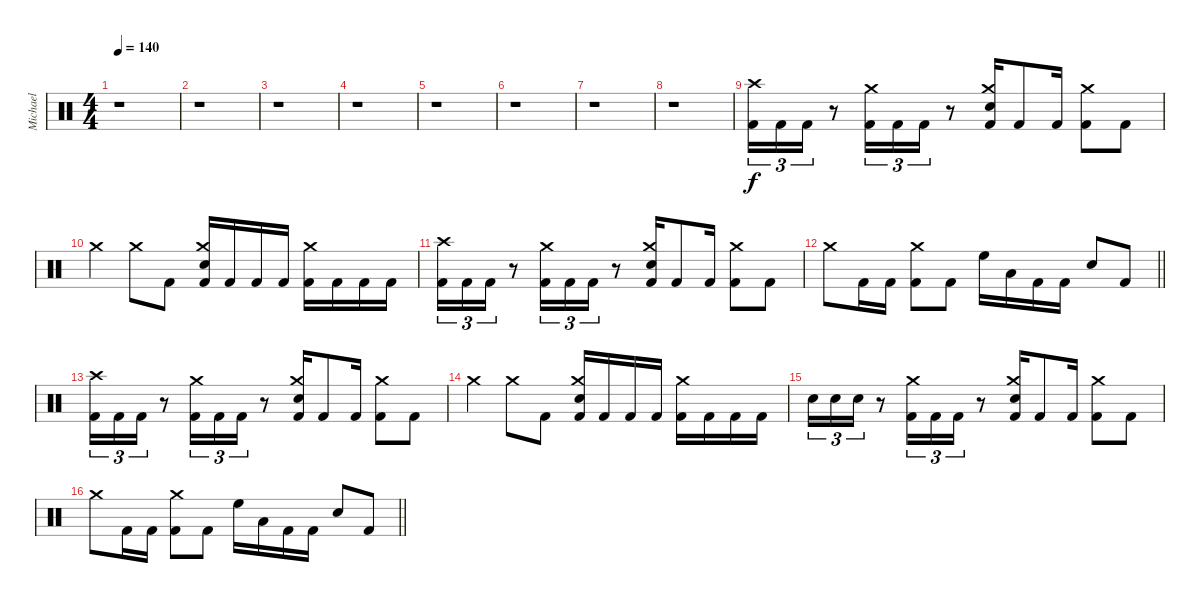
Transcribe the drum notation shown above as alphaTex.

\track ("Michael" "Michael") {instrument percussion}
\staff {score}
\articulation defaults
\ts (4 4)
\tempo 140
\clef neutral
\ks c
r.1{dy fff} |
r.1 |
r.1 |
r.1 |
r.1 |
r.1 |
r.1 |
r.1 |
("Crash high (hit)" "Kick (hit) 2").16{tu (3 2) dy f} "Kick (hit) 2".16{tu (3 2)} "Kick (hit) 2".16{tu (3 2)} r.8 ("Crash medium (hit)" "Kick (hit) 2").16{tu (3 2)} "Kick (hit) 2".16{tu (3 2)} "Kick (hit) 2".16{tu (3 2)} r.8 ("Crash medium (hit)" "Electric Snare (hit)" "Kick (hit) 2").16 "Kick (hit) 2".8 "Kick (hit) 2".16 ("Crash medium (hit)" "Kick (hit) 2").8 "Kick (hit) 2".8 |
"Crash medium (hit)".4 "Crash medium (hit)".8 "Kick (hit) 2".8 ("Crash medium (hit)" "Electric Snare (hit)" "Kick (hit) 2").16 "Kick (hit) 2".16 "Kick (hit) 2".16 "Kick (hit) 2".16 ("Crash medium (hit)" "Kick (hit) 2").16 "Kick (hit) 2".16 "Kick (hit) 2".16 "Kick (hit) 2".16 |
("Crash high (hit)" "Kick (hit) 2").16{tu (3 2)} "Kick (hit) 2".16{tu (3 2)} "Kick (hit) 2".16{tu (3 2)} r.8 ("Crash medium (hit)" "Kick (hit) 2").16{tu (3 2)} "Kick (hit) 2".16{tu (3 2)} "Kick (hit) 2".16{tu (3 2)} r.8 ("Crash medium (hit)" "Electric Snare (hit)" "Kick (hit) 2").16 "Kick (hit) 2".8 "Kick (hit) 2".16 ("Crash medium (hit)" "Kick (hit) 2").8 "Kick (hit) 2".8 |
\barLineRight lightlight "Crash medium (hit)".8 "Kick (hit) 2".16 "Kick (hit) 2".16
("Crash medium (hit)" "Kick (hit) 2").8 "Kick (hit) 2".8 "High Floor Tom (hit)".16 "Low Tom (hit)".16 "Kick (hit) 2".16 "Kick (hit) 2".16 "Electric Snare (hit)".8 "Kick (hit) 2".8 |
("Crash high (hit)" "Kick (hit) 2").16{tu (3 2)} "Kick (hit) 2".16{tu (3 2)} "Kick (hit) 2".16{tu (3 2)} r.8 ("Crash medium (hit)" "Kick (hit) 2").16{tu (3 2)} "Kick (hit) 2".16{tu (3 2)} "Kick (hit) 2".16{tu (3 2)} r.8 ("Crash medium (hit)" "Electric Snare (hit)" "Kick (hit) 2").16 "Kick (hit) 2".8 "Kick (hit) 2".16 ("Crash medium (hit)" "Kick (hit) 2").8 "Kick (hit) 2".8 |
"Crash medium (hit)".4 "Crash medium (hit)".8 "Kick (hit) 2".8 ("Crash medium (hit)" "Electric Snare (hit)" "Kick (hit) 2").16 "Kick (hit) 2".16 "Kick (hit) 2".16 "Kick (hit) 2".16 ("Crash medium (hit)" "Kick (hit) 2").16 "Kick (hit) 2".16 "Kick (hit) 2".16 "Kick (hit) 2".16 |
"Electric Snare (hit)".16{tu (3 2)} "Electric Snare (hit)".16{tu (3 2)} "Electric Snare (hit)".16{tu (3 2)} r.8 ("Crash medium (hit)" "Kick (hit) 2").16{tu (3 2)} "Kick (hit) 2".16{tu (3 2)} "Kick (hit) 2".16{tu (3 2)} r.8 ("Crash medium (hit)" "Electric Snare (hit)" "Kick (hit) 2").16 "Kick (hit) 2".8 "Kick (hit) 2".16 ("Crash medium (hit)" "Kick (hit) 2").8 "Kick (hit) 2".8 |
\barLineRight lightlight "Crash medium (hit)".8 "Kick (hit) 2".16 "Kick (hit) 2".16
("Crash medium (hit)" "Kick (hit) 2").8 "Kick (hit) 2".8 "High Floor Tom (hit)".16 "Low Tom (hit)".16 "Kick (hit) 2".16 "Kick (hit) 2".16 "Electric Snare (hit)".8 "Kick (hit) 2".8
